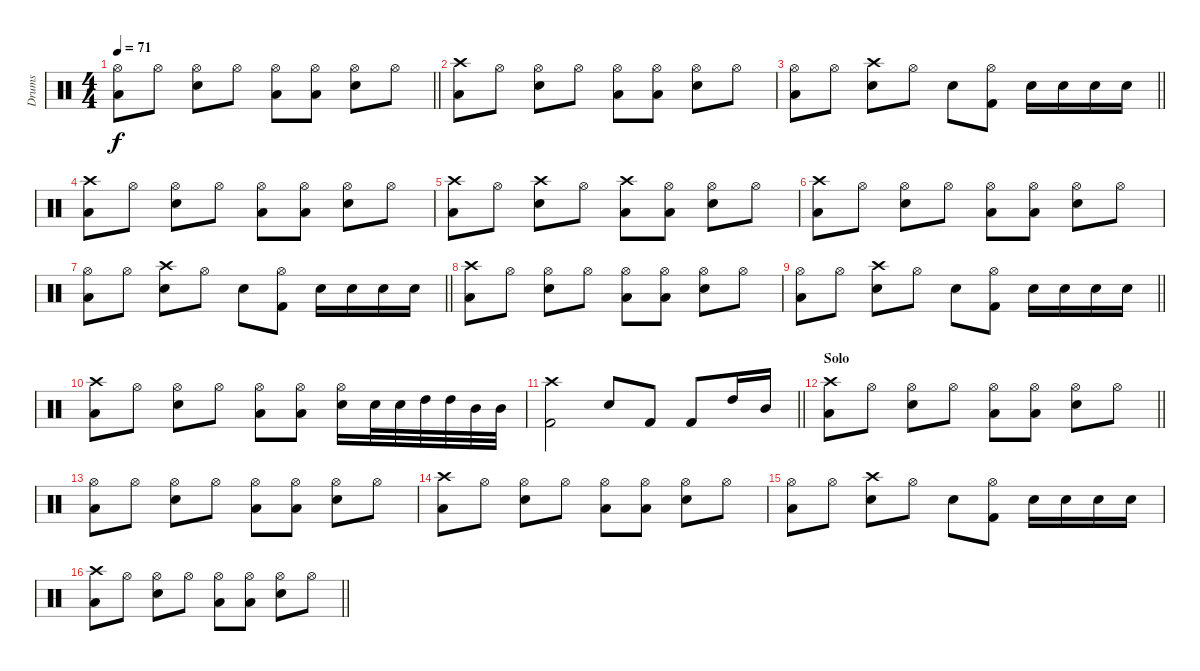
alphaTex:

\track ("Drums" "Drums") {instrument percussion}
\staff {score}
\articulation defaults
\ts (4 4)
\tempo 71
\clef neutral
\barLineRight lightlight
\ks c
("Hi-Hat (open)" "Low Floor Tom (hit)").8{dy f} "Hi-Hat (open)".8 ("Hi-Hat (open)" "Snare (hit) 2").8 "Hi-Hat (open)".8 ("Hi-Hat (open)" "Low Floor Tom (hit)").8 ("Hi-Hat (open)" "Low Floor Tom (hit)").8 ("Hi-Hat (open)" "Snare (hit) 2").8 "Hi-Hat (open)".8 |
("Crash high (hit)" "Low Floor Tom (hit)").8 "Hi-Hat (open)".8 ("Hi-Hat (open)" "Snare (hit) 2").8 "Hi-Hat (open)".8 ("Hi-Hat (open)" "Low Floor Tom (hit)").8 ("Hi-Hat (open)" "Low Floor Tom (hit)").8 ("Hi-Hat (open)" "Snare (hit) 2").8 "Hi-Hat (open)".8 |
\barLineRight lightlight
("Hi-Hat (open)" "Low Floor Tom (hit)").8 "Hi-Hat (open)".8 ("Crash high (hit)" "Snare (hit) 2").8 "Hi-Hat (open)".8 "Snare (hit) 2".8 ("Kick (hit) 2" "Hi-Hat (open)").8 "Snare (hit) 2".16 "Snare (hit) 2".16 "Snare (hit) 2".16 "Snare (hit) 2".16 |
("Crash high (hit)" "Low Floor Tom (hit)").8 "Hi-Hat (open)".8 ("Hi-Hat (open)" "Snare (hit) 2").8 "Hi-Hat (open)".8 ("Hi-Hat (open)" "Low Floor Tom (hit)").8 ("Hi-Hat (open)" "Low Floor Tom (hit)").8 ("Hi-Hat (open)" "Snare (hit) 2").8 "Hi-Hat (open)".8 |
("Crash high (hit)" "Low Floor Tom (hit)").8 "Hi-Hat (open)".8 ("Crash high (hit)" "Snare (hit) 2").8 "Hi-Hat (open)".8 ("Crash high (hit)" "Low Floor Tom (hit)").8 ("Hi-Hat (open)" "Low Floor Tom (hit)").8 ("Hi-Hat (open)" "Snare (hit) 2").8 "Hi-Hat (open)".8 |
("Crash high (hit)" "Low Floor Tom (hit)").8 "Hi-Hat (open)".8 ("Hi-Hat (open)" "Snare (hit) 2").8 "Hi-Hat (open)".8 ("Hi-Hat (open)" "Low Floor Tom (hit)").8 ("Hi-Hat (open)" "Low Floor Tom (hit)").8 ("Hi-Hat (open)" "Snare (hit) 2").8 "Hi-Hat (open)".8 |
\barLineRight lightlight
("Hi-Hat (open)" "Low Floor Tom (hit)").8 "Hi-Hat (open)".8 ("Crash high (hit)" "Snare (hit) 2").8 "Hi-Hat (open)".8 "Snare (hit) 2".8 ("Kick (hit) 2" "Hi-Hat (open)").8 "Snare (hit) 2".16 "Snare (hit) 2".16 "Snare (hit) 2".16 "Snare (hit) 2".16 |
("Crash high (hit)" "Low Floor Tom (hit)").8 "Hi-Hat (open)".8 ("Hi-Hat (open)" "Snare (hit) 2").8 "Hi-Hat (open)".8 ("Hi-Hat (open)" "Low Floor Tom (hit)").8 ("Hi-Hat (open)" "Low Floor Tom (hit)").8 ("Hi-Hat (open)" "Snare (hit) 2").8 "Hi-Hat (open)".8 |
\barLineRight lightlight
("Hi-Hat (open)" "Low Floor Tom (hit)").8 "Hi-Hat (open)".8 ("Crash high (hit)" "Snare (hit) 2").8 "Hi-Hat (open)".8 "Snare (hit) 2".8 ("Kick (hit) 2" "Hi-Hat (open)").8 "Snare (hit) 2".16 "Snare (hit) 2".16 "Snare (hit) 2".16 "Snare (hit) 2".16 |
("Crash high (hit)" "Low Floor Tom (hit)").8 "Hi-Hat (open)".8 ("Hi-Hat (open)" "Snare (hit) 2").8 "Hi-Hat (open)".8 ("Hi-Hat (open)" "Low Floor Tom (hit)").8 ("Hi-Hat (open)" "Low Floor Tom (hit)").8 ("Hi-Hat (open)" "Snare (hit) 2").16 "Snare (hit) 2".32 "Snare (hit) 2".32 "High Tom (hit)".32 "High Tom (hit)".32 "Mid Tom (hit)".32 "Mid Tom (hit)".32 |
\barLineRight lightlight
("Kick (hit) 2" "Crash high (hit)").2 "Snare (hit) 2".8 "Kick (hit) 2".8 "Kick (hit) 2".8 "High Tom (hit)".16 "Mid Tom (hit)".16 |
\section ("" "Solo")
\barLineRight lightlight
("Crash high (hit)" "Low Floor Tom (hit)").8 "Hi-Hat (open)".8 ("Hi-Hat (open)" "Snare (hit) 2").8 "Hi-Hat (open)".8 ("Hi-Hat (open)" "Low Floor Tom (hit)").8 ("Hi-Hat (open)" "Low Floor Tom (hit)").8 ("Hi-Hat (open)" "Snare (hit) 2").8 "Hi-Hat (open)".8 |
("Hi-Hat (open)" "Low Floor Tom (hit)").8 "Hi-Hat (open)".8 ("Hi-Hat (open)" "Snare (hit) 2").8 "Hi-Hat (open)".8 ("Hi-Hat (open)" "Low Floor Tom (hit)").8 ("Hi-Hat (open)" "Low Floor Tom (hit)").8 ("Hi-Hat (open)" "Snare (hit) 2").8 "Hi-Hat (open)".8 |
("Crash high (hit)" "Low Floor Tom (hit)").8 "Hi-Hat (open)".8 ("Hi-Hat (open)" "Snare (hit) 2").8 "Hi-Hat (open)".8 ("Hi-Hat (open)" "Low Floor Tom (hit)").8 ("Hi-Hat (open)" "Low Floor Tom (hit)").8 ("Hi-Hat (open)" "Snare (hit) 2").8 "Hi-Hat (open)".8 |
("Hi-Hat (open)" "Low Floor Tom (hit)").8 "Hi-Hat (open)".8 ("Crash high (hit)" "Snare (hit) 2").8 "Hi-Hat (open)".8 "Snare (hit) 2".8 ("Kick (hit) 2" "Hi-Hat (open)").8 "Snare (hit) 2".16 "Snare (hit) 2".16 "Snare (hit) 2".16 "Snare (hit) 2".16 |
\barLineRight lightlight
("Crash high (hit)" "Low Floor Tom (hit)").8 "Hi-Hat (open)".8 ("Hi-Hat (open)" "Snare (hit) 2").8 "Hi-Hat (open)".8 ("Hi-Hat (open)" "Low Floor Tom (hit)").8 ("Hi-Hat (open)" "Low Floor Tom (hit)").8 ("Hi-Hat (open)" "Snare (hit) 2").8 "Hi-Hat (open)".8
